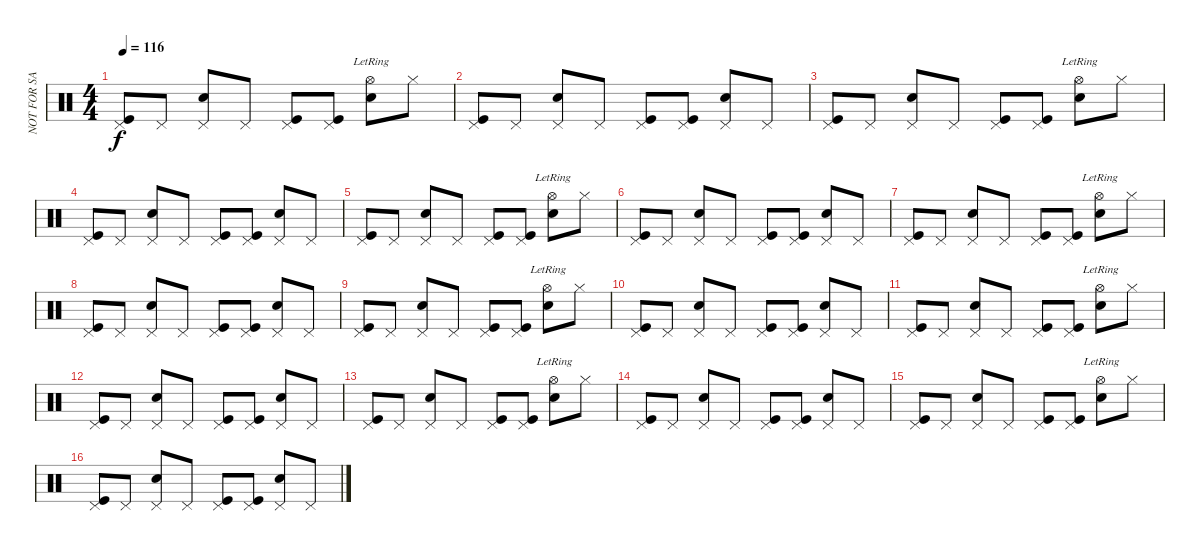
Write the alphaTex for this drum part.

\track ("NOT FOR SALE OR PROFIT" "NOT FOR SA") {instrument percussion}
\staff {score}
\articulation defaults
\ts (4 4)
\tempo 116
\clef neutral
\ks c
("Pedal Hi-Hat (hit)" "Kick (hit)").8{dy f} "Pedal Hi-Hat (hit)".8 ("Pedal Hi-Hat (hit)" "Snare (hit) 2").8 "Pedal Hi-Hat (hit)".8 ("Pedal Hi-Hat (hit)" "Kick (hit)").8 ("Pedal Hi-Hat (hit)" "Kick (hit)").8 ("Hi-Hat (open)"{lr} "Snare (hit) 2").8 "Hi-Hat (closed)".8 |
("Pedal Hi-Hat (hit)" "Kick (hit)").8 "Pedal Hi-Hat (hit)".8 ("Pedal Hi-Hat (hit)" "Snare (hit) 2").8 "Pedal Hi-Hat (hit)".8 ("Pedal Hi-Hat (hit)" "Kick (hit)").8 ("Pedal Hi-Hat (hit)" "Kick (hit)").8 ("Pedal Hi-Hat (hit)" "Snare (hit) 2").8 "Pedal Hi-Hat (hit)".8 |
("Pedal Hi-Hat (hit)" "Kick (hit)").8 "Pedal Hi-Hat (hit)".8 ("Pedal Hi-Hat (hit)" "Snare (hit) 2").8 "Pedal Hi-Hat (hit)".8 ("Pedal Hi-Hat (hit)" "Kick (hit)").8 ("Pedal Hi-Hat (hit)" "Kick (hit)").8 ("Hi-Hat (open)"{lr} "Snare (hit) 2").8 "Hi-Hat (closed)".8 |
("Pedal Hi-Hat (hit)" "Kick (hit)").8 "Pedal Hi-Hat (hit)".8 ("Pedal Hi-Hat (hit)" "Snare (hit) 2").8 "Pedal Hi-Hat (hit)".8 ("Pedal Hi-Hat (hit)" "Kick (hit)").8 ("Pedal Hi-Hat (hit)" "Kick (hit)").8 ("Pedal Hi-Hat (hit)" "Snare (hit) 2").8 "Pedal Hi-Hat (hit)".8 |
("Pedal Hi-Hat (hit)" "Kick (hit)").8 "Pedal Hi-Hat (hit)".8 ("Pedal Hi-Hat (hit)" "Snare (hit) 2").8 "Pedal Hi-Hat (hit)".8 ("Pedal Hi-Hat (hit)" "Kick (hit)").8 ("Pedal Hi-Hat (hit)" "Kick (hit)").8 ("Hi-Hat (open)"{lr} "Snare (hit) 2").8 "Hi-Hat (closed)".8 |
("Pedal Hi-Hat (hit)" "Kick (hit)").8 "Pedal Hi-Hat (hit)".8 ("Pedal Hi-Hat (hit)" "Snare (hit) 2").8 "Pedal Hi-Hat (hit)".8 ("Pedal Hi-Hat (hit)" "Kick (hit)").8 ("Pedal Hi-Hat (hit)" "Kick (hit)").8 ("Pedal Hi-Hat (hit)" "Snare (hit) 2").8 "Pedal Hi-Hat (hit)".8 |
("Pedal Hi-Hat (hit)" "Kick (hit)").8 "Pedal Hi-Hat (hit)".8 ("Pedal Hi-Hat (hit)" "Snare (hit) 2").8 "Pedal Hi-Hat (hit)".8 ("Pedal Hi-Hat (hit)" "Kick (hit)").8 ("Pedal Hi-Hat (hit)" "Kick (hit)").8 ("Hi-Hat (open)"{lr} "Snare (hit) 2").8 "Hi-Hat (closed)".8 |
("Pedal Hi-Hat (hit)" "Kick (hit)").8 "Pedal Hi-Hat (hit)".8 ("Pedal Hi-Hat (hit)" "Snare (hit) 2").8 "Pedal Hi-Hat (hit)".8 ("Pedal Hi-Hat (hit)" "Kick (hit)").8 ("Pedal Hi-Hat (hit)" "Kick (hit)").8 ("Pedal Hi-Hat (hit)" "Snare (hit) 2").8 "Pedal Hi-Hat (hit)".8 |
("Pedal Hi-Hat (hit)" "Kick (hit)").8 "Pedal Hi-Hat (hit)".8 ("Pedal Hi-Hat (hit)" "Snare (hit) 2").8 "Pedal Hi-Hat (hit)".8 ("Pedal Hi-Hat (hit)" "Kick (hit)").8 ("Pedal Hi-Hat (hit)" "Kick (hit)").8 ("Hi-Hat (open)"{lr} "Snare (hit) 2").8 "Hi-Hat (closed)".8 |
("Pedal Hi-Hat (hit)" "Kick (hit)").8 "Pedal Hi-Hat (hit)".8 ("Pedal Hi-Hat (hit)" "Snare (hit) 2").8 "Pedal Hi-Hat (hit)".8 ("Pedal Hi-Hat (hit)" "Kick (hit)").8 ("Pedal Hi-Hat (hit)" "Kick (hit)").8 ("Pedal Hi-Hat (hit)" "Snare (hit) 2").8 "Pedal Hi-Hat (hit)".8 |
("Pedal Hi-Hat (hit)" "Kick (hit)").8 "Pedal Hi-Hat (hit)".8 ("Pedal Hi-Hat (hit)" "Snare (hit) 2").8 "Pedal Hi-Hat (hit)".8 ("Pedal Hi-Hat (hit)" "Kick (hit)").8 ("Pedal Hi-Hat (hit)" "Kick (hit)").8 ("Hi-Hat (open)"{lr} "Snare (hit) 2").8 "Hi-Hat (closed)".8 |
("Pedal Hi-Hat (hit)" "Kick (hit)").8 "Pedal Hi-Hat (hit)".8 ("Pedal Hi-Hat (hit)" "Snare (hit) 2").8 "Pedal Hi-Hat (hit)".8 ("Pedal Hi-Hat (hit)" "Kick (hit)").8 ("Pedal Hi-Hat (hit)" "Kick (hit)").8 ("Pedal Hi-Hat (hit)" "Snare (hit) 2").8 "Pedal Hi-Hat (hit)".8 |
("Pedal Hi-Hat (hit)" "Kick (hit)").8 "Pedal Hi-Hat (hit)".8 ("Pedal Hi-Hat (hit)" "Snare (hit) 2").8 "Pedal Hi-Hat (hit)".8 ("Pedal Hi-Hat (hit)" "Kick (hit)").8 ("Pedal Hi-Hat (hit)" "Kick (hit)").8 ("Hi-Hat (open)"{lr} "Snare (hit) 2").8 "Hi-Hat (closed)".8 |
("Pedal Hi-Hat (hit)" "Kick (hit)").8 "Pedal Hi-Hat (hit)".8 ("Pedal Hi-Hat (hit)" "Snare (hit) 2").8 "Pedal Hi-Hat (hit)".8 ("Pedal Hi-Hat (hit)" "Kick (hit)").8 ("Pedal Hi-Hat (hit)" "Kick (hit)").8 ("Pedal Hi-Hat (hit)" "Snare (hit) 2").8 "Pedal Hi-Hat (hit)".8 |
("Pedal Hi-Hat (hit)" "Kick (hit)").8 "Pedal Hi-Hat (hit)".8 ("Pedal Hi-Hat (hit)" "Snare (hit) 2").8 "Pedal Hi-Hat (hit)".8 ("Pedal Hi-Hat (hit)" "Kick (hit)").8 ("Pedal Hi-Hat (hit)" "Kick (hit)").8 ("Hi-Hat (open)"{lr} "Snare (hit) 2").8 "Hi-Hat (closed)".8 |
("Pedal Hi-Hat (hit)" "Kick (hit)").8 "Pedal Hi-Hat (hit)".8 ("Pedal Hi-Hat (hit)" "Snare (hit) 2").8 "Pedal Hi-Hat (hit)".8 ("Pedal Hi-Hat (hit)" "Kick (hit)").8 ("Pedal Hi-Hat (hit)" "Kick (hit)").8 ("Pedal Hi-Hat (hit)" "Snare (hit) 2").8 "Pedal Hi-Hat (hit)".8
